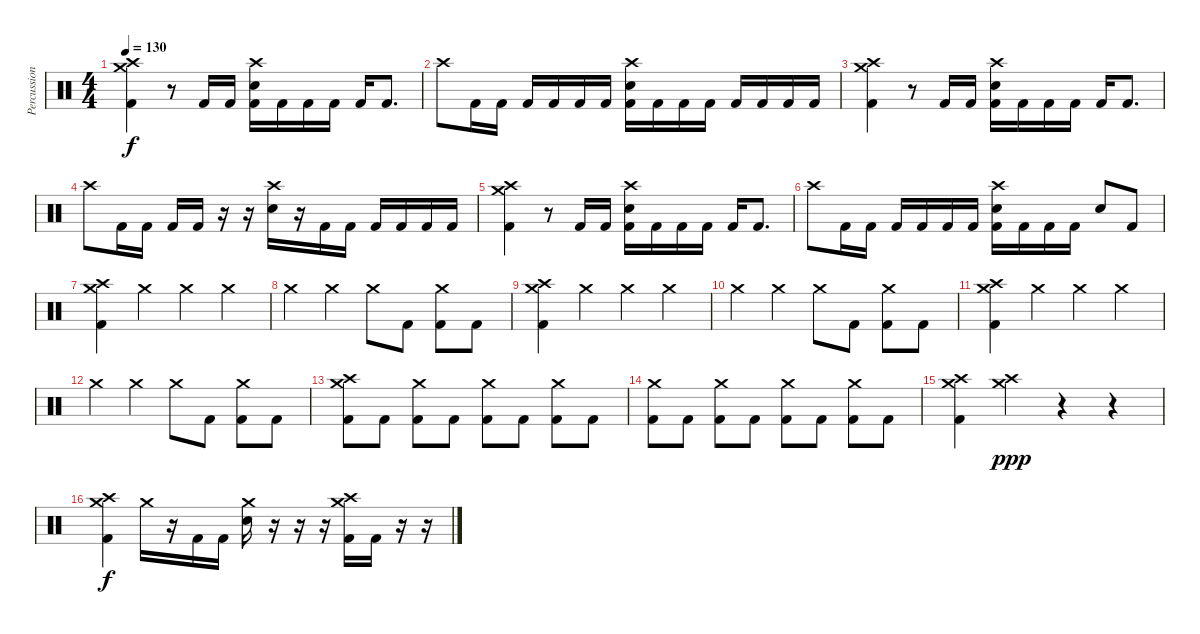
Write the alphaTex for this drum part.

\track ("Percussion" "Percussion") {instrument percussion}
\staff {score}
\articulation defaults
\ts (4 4)
\tempo 130
\clef neutral
\ks c
("Crash medium (hit)" "Crash high (hit)" "Kick (hit) 2").4{dy f} r.8 "Kick (hit) 2".16 "Kick (hit) 2".16 ("Crash high (hit)" "Electric Snare (hit)" "Kick (hit) 2").16 "Kick (hit) 2".16 "Kick (hit) 2".16 "Kick (hit) 2".16 "Kick (hit) 2".16 "Kick (hit) 2".8{d} |
"Crash high (hit)".8 "Kick (hit) 2".16 "Kick (hit) 2".16 "Kick (hit) 2".16 "Kick (hit) 2".16 "Kick (hit) 2".16 "Kick (hit) 2".16 ("Crash high (hit)" "Electric Snare (hit)" "Kick (hit) 2").16 "Kick (hit) 2".16 "Kick (hit) 2".16 "Kick (hit) 2".16 "Kick (hit) 2".16 "Kick (hit) 2".16 "Kick (hit) 2".16 "Kick (hit) 2".16 |
("Crash medium (hit)" "Crash high (hit)" "Kick (hit) 2").4 r.8 "Kick (hit) 2".16 "Kick (hit) 2".16 ("Crash high (hit)" "Electric Snare (hit)" "Kick (hit) 2").16 "Kick (hit) 2".16 "Kick (hit) 2".16 "Kick (hit) 2".16 "Kick (hit) 2".16 "Kick (hit) 2".8{d} |
"Crash high (hit)".8 "Kick (hit) 2".16 "Kick (hit) 2".16 "Kick (hit) 2".16 "Kick (hit) 2".16 r.16 r.16 ("Crash high (hit)" "Electric Snare (hit)").16 r.16 "Kick (hit) 2".16 "Kick (hit) 2".16 "Kick (hit) 2".16 "Kick (hit) 2".16 "Kick (hit) 2".16 "Kick (hit) 2".16 |
("Crash medium (hit)" "Crash high (hit)" "Kick (hit) 2").4 r.8 "Kick (hit) 2".16 "Kick (hit) 2".16 ("Crash high (hit)" "Electric Snare (hit)" "Kick (hit) 2").16 "Kick (hit) 2".16 "Kick (hit) 2".16 "Kick (hit) 2".16 "Kick (hit) 2".16 "Kick (hit) 2".8{d} |
"Crash high (hit)".8 "Kick (hit) 2".16 "Kick (hit) 2".16 "Kick (hit) 2".16 "Kick (hit) 2".16 "Kick (hit) 2".16 "Kick (hit) 2".16 ("Crash high (hit)" "Electric Snare (hit)" "Kick (hit) 2").16 "Kick (hit) 2".16 "Kick (hit) 2".16 "Kick (hit) 2".16 "Electric Snare (hit)".8 "Kick (hit) 2".8 |
("Crash medium (hit)" "Crash high (hit)" "Kick (hit) 2").4 "Crash medium (hit)".4 "Crash medium (hit)".4 "Crash medium (hit)".4 |
"Crash medium (hit)".4 "Crash medium (hit)".4 "Crash medium (hit)".8 "Kick (hit) 2".8 ("Crash medium (hit)" "Kick (hit) 2").8 "Kick (hit) 2".8 |
("Crash medium (hit)" "Crash high (hit)" "Kick (hit) 2").4 "Crash medium (hit)".4 "Crash medium (hit)".4 "Crash medium (hit)".4 |
"Crash medium (hit)".4 "Crash medium (hit)".4 "Crash medium (hit)".8 "Kick (hit) 2".8 ("Crash medium (hit)" "Kick (hit) 2").8 "Kick (hit) 2".8 |
("Crash medium (hit)" "Crash high (hit)" "Kick (hit) 2").4 "Crash medium (hit)".4 "Crash medium (hit)".4 "Crash medium (hit)".4 |
"Crash medium (hit)".4 "Crash medium (hit)".4 "Crash medium (hit)".8 "Kick (hit) 2".8 ("Crash medium (hit)" "Kick (hit) 2").8 "Kick (hit) 2".8 |
("Crash medium (hit)" "Crash high (hit)" "Kick (hit) 2").8 "Kick (hit) 2".8 ("Crash medium (hit)" "Kick (hit) 2").8 "Kick (hit) 2".8 ("Crash medium (hit)" "Kick (hit) 2").8 "Kick (hit) 2".8 ("Crash medium (hit)" "Kick (hit) 2").8 "Kick (hit) 2".8 |
("Crash medium (hit)" "Kick (hit) 2").8 "Kick (hit) 2".8 ("Crash medium (hit)" "Kick (hit) 2").8 "Kick (hit) 2".8 ("Crash medium (hit)" "Kick (hit) 2").8 "Kick (hit) 2".8 ("Crash medium (hit)" "Kick (hit) 2").8 "Kick (hit) 2".8 |
("Crash medium (hit)" "Crash high (hit)" "Kick (hit) 2").4 ("Crash medium (hit)" "Crash high (hit)").4{dy ppp} r.4 r.4 |
("Crash medium (hit)" "Crash high (hit)" "Kick (hit) 2").4{dy f} "Crash medium (hit)".16 r.16 "Kick (hit) 2".16 "Kick (hit) 2".16 ("Crash medium (hit)" "Electric Snare (hit)").16 r.16 r.16 r.16 ("Crash medium (hit)" "Crash high (hit)" "Kick (hit) 2").16 "Kick (hit) 2".16 r.16 r.16
